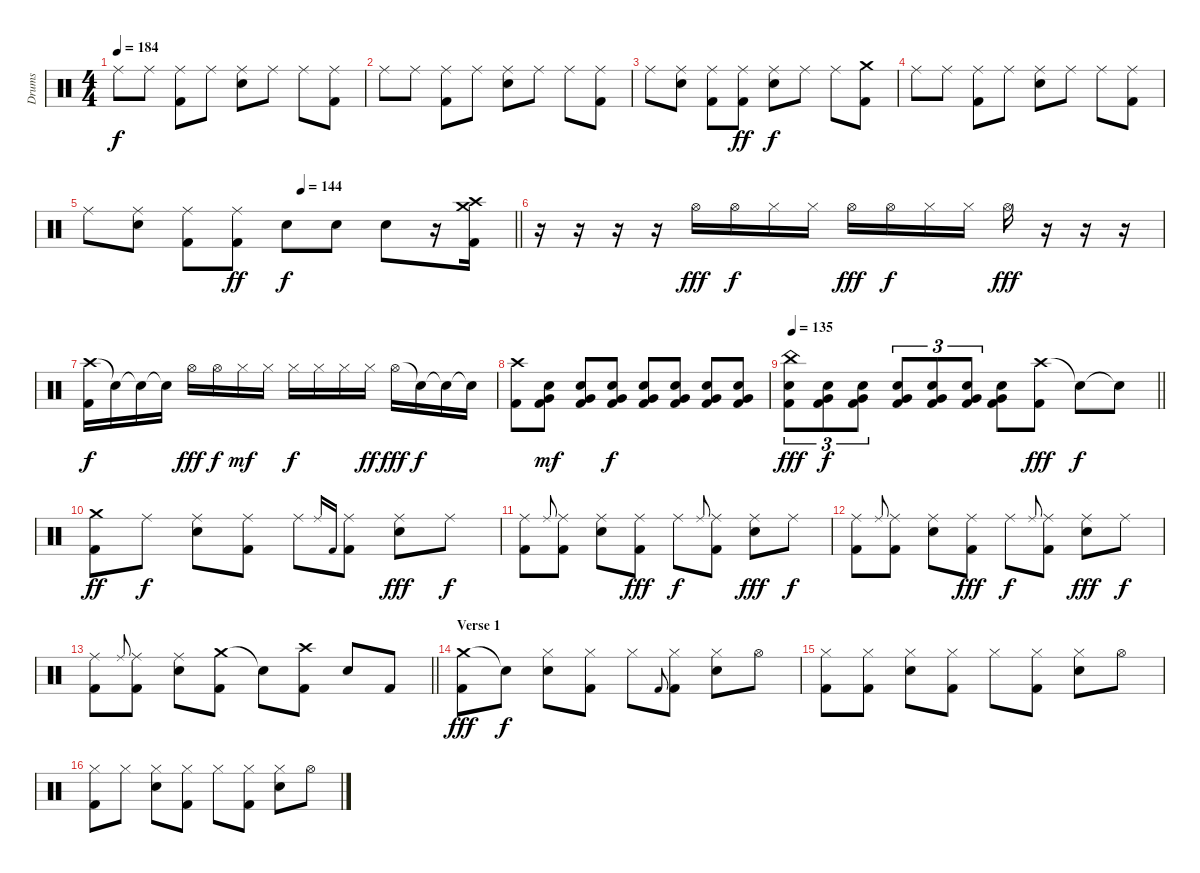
\track ("Drums" "Drums") {instrument percussion}
\staff {score}
\articulation defaults
\ts (4 4)
\tempo 184
\clef neutral
\ks c "Ride (middle)".8{dy f} "Ride (middle)".8
("Ride (middle)" "Kick (hit) 2").8 "Ride (middle)".8 ("Ride (middle)" "Snare (hit) 2").8 "Ride (middle)".8 "Ride (middle)".8 ("Ride (middle)" "Kick (hit) 2").8 |
"Ride (middle)".8 "Ride (middle)".8 ("Ride (middle)" "Kick (hit) 2").8 "Ride (middle)".8 ("Ride (middle)" "Snare (hit) 2").8 "Ride (middle)".8 "Ride (middle)".8 ("Ride (middle)" "Kick (hit) 2").8 |
"Ride (middle)".8 ("Ride (middle)" "Snare (hit) 2").8 ("Ride (middle)" "Kick (hit) 2").8 ("Ride (middle)" "Kick (hit) 2").8{dy ff} ("Ride (middle)" "Snare (hit) 2").8{dy f} "Ride (middle)".8 "Ride (middle)".8 ("Crash medium (hit)" "Kick (hit) 2").8 |
"Ride (middle)".8 "Ride (middle)".8 ("Ride (middle)" "Kick (hit) 2").8 "Ride (middle)".8 ("Ride (middle)" "Snare (hit) 2").8 "Ride (middle)".8 "Ride (middle)".8 ("Ride (middle)" "Kick (hit) 2").8 |
\tempo (144 0.5)
\barLineRight lightlight "Ride (middle)".8
("Ride (middle)" "Snare (hit) 2").8 ("Ride (middle)" "Kick (hit) 2").8 ("Ride (middle)" "Kick (hit) 2").8{dy ff} "Snare (hit) 2".8{dy f} "Snare (hit) 2".8 "Snare (hit) 2".8 r.16 ("Crash high (hit)" "Crash medium (hit)" "Kick (hit) 2").16 |
r.16 r.16 r.16 r.16 "Hi-Hat (open)".16{dy fff} "Hi-Hat (open)".16{dy f} "Hi-Hat (closed)".16 "Hi-Hat (closed)".16 "Hi-Hat (open)".16{dy fff} "Hi-Hat (open)".16{dy f} "Hi-Hat (closed)".16 "Hi-Hat (closed)".16 "Hi-Hat (open)".16{dy fff} r.16 r.16 r.16 |
("Crash high (hit)" "Kick (hit) 2").16{dy f} "Snare (hit)"{t}.16 "Snare (hit)"{t}.16 "Snare (hit)"{t}.16 "Hi-Hat (open)".16{dy fff} "Hi-Hat (open)".16{dy f} "Hi-Hat (closed)".16{dy mf} "Hi-Hat (closed)".16 "Hi-Hat (closed)".16{dy f} "Hi-Hat (closed)".16 "Hi-Hat (closed)".16 "Hi-Hat (closed)".16{dy ff} "Hi-Hat (open)".16{dy fff} "Snare (hit)"{t}.16{dy f} "Snare (hit)"{t}.16 "Snare (hit)"{t}.16 |
("Crash high (hit)" "Kick (hit) 2").8 ("Snare (hit) 2" "Very Low Tom (hit)" "Kick (hit) 2").8{dy mf} ("Snare (hit) 2" "Very Low Tom (hit)" "Kick (hit) 2").8 ("Snare (hit) 2" "Very Low Tom (hit)" "Kick (hit) 2").8{dy f} ("Snare (hit) 2" "Very Low Tom (hit)" "Kick (hit) 2").8 ("Snare (hit) 2" "Very Low Tom (hit)" "Kick (hit) 2").8 ("Snare (hit) 2" "Very Low Tom (hit)" "Kick (hit) 2").8 ("Snare (hit) 2" "Very Low Tom (hit)" "Kick (hit) 2").8 |
\tempo 135
\barLineRight lightlight
("China (hit)" "Snare (hit) 2" "Kick (hit) 2").8{tu (3 2) dy fff} ("Snare (hit) 2" "Very Low Tom (hit)" "Kick (hit) 2").8{tu (3 2) dy f} ("Snare (hit) 2" "Very Low Tom (hit)" "Kick (hit) 2").8{tu (3 2)} ("Snare (hit) 2" "Very Low Tom (hit)" "Kick (hit) 2").8{tu (3 2)} ("Snare (hit) 2" "Very Low Tom (hit)" "Kick (hit) 2").8{tu (3 2)} ("Snare (hit) 2" "Very Low Tom (hit)" "Kick (hit) 2").8{tu (3 2)} ("Snare (hit) 2" "Very Low Tom (hit)" "Kick (hit) 2").8 ("Crash high (hit)" "Kick (hit) 2").8{dy fff} "Snare (hit)"{t}.8{dy f} "Snare (hit)"{t}.8 |
("Crash medium (hit)" "Kick (hit) 2").8{dy ff} "Ride (middle)".8{dy f} ("Ride (middle)" "Snare (hit) 2").8 ("Ride (middle)" "Kick (hit) 2").8 "Ride (middle)".8 "Ride (middle)".16{gr onbeat} "Kick (hit) 2".16{gr onbeat} ("Ride (middle)" "Kick (hit) 2").8 ("Ride (middle)" "Snare (hit) 2").8{dy fff} "Ride (middle)".8{dy f} |
("Ride (middle)" "Kick (hit) 2").8 "Ride (middle)".8{gr onbeat} ("Ride (middle)" "Kick (hit) 2").8 ("Ride (middle)" "Snare (hit) 2").8 ("Ride (middle)" "Kick (hit) 2").8{dy fff} "Ride (middle)".8{dy f} "Ride (middle)".8{gr onbeat} ("Ride (middle)" "Kick (hit) 2").8 ("Ride (middle)" "Snare (hit) 2").8{dy fff} "Ride (middle)".8{dy f} |
("Ride (middle)" "Kick (hit) 2").8 "Ride (middle)".8{gr onbeat} ("Ride (middle)" "Kick (hit) 2").8 ("Ride (middle)" "Snare (hit) 2").8 ("Ride (middle)" "Kick (hit) 2").8{dy fff} "Ride (middle)".8{dy f} "Ride (middle)".8{gr onbeat} ("Ride (middle)" "Kick (hit) 2").8 ("Ride (middle)" "Snare (hit) 2").8{dy fff} "Ride (middle)".8{dy f} |
\barLineRight lightlight
("Ride (middle)" "Kick (hit) 2").8 "Ride (middle)".8{gr onbeat} ("Ride (middle)" "Kick (hit) 2").8 ("Ride (middle)" "Snare (hit) 2").8 ("Crash medium (hit)" "Kick (hit) 2").8 "Snare (hit)"{t}.8 ("Crash high (hit)" "Kick (hit) 2").8 "Snare (hit) 2".8 "Kick (hit) 2".8 |
\section ("" "Verse 1")
("Crash medium (hit)" "Kick (hit) 2").8{dy fff volume 16 balance 8} "Snare (hit)"{t}.8{dy f} ("Hi-Hat (closed)" "Snare (hit) 2").8 ("Hi-Hat (closed)" "Kick (hit) 2").8 "Hi-Hat (closed)".8 "Kick (hit) 2".8{gr onbeat} ("Hi-Hat (closed)" "Kick (hit) 2").8 ("Hi-Hat (closed)" "Snare (hit) 2").8 "Hi-Hat (open)".8 |
("Hi-Hat (closed)" "Kick (hit) 2").8 ("Hi-Hat (closed)" "Kick (hit) 2").8 ("Hi-Hat (closed)" "Snare (hit) 2").8 ("Hi-Hat (closed)" "Kick (hit) 2").8 "Hi-Hat (closed)".8 ("Hi-Hat (closed)" "Kick (hit) 2").8 ("Hi-Hat (closed)" "Snare (hit) 2").8 "Hi-Hat (open)".8 |
("Hi-Hat (closed)" "Kick (hit) 2").8 "Hi-Hat (closed)".8 ("Hi-Hat (closed)" "Snare (hit) 2").8 ("Hi-Hat (closed)" "Kick (hit) 2").8 "Hi-Hat (closed)".8 ("Hi-Hat (closed)" "Kick (hit) 2").8 ("Hi-Hat (closed)" "Snare (hit) 2").8 "Hi-Hat (open)".8
